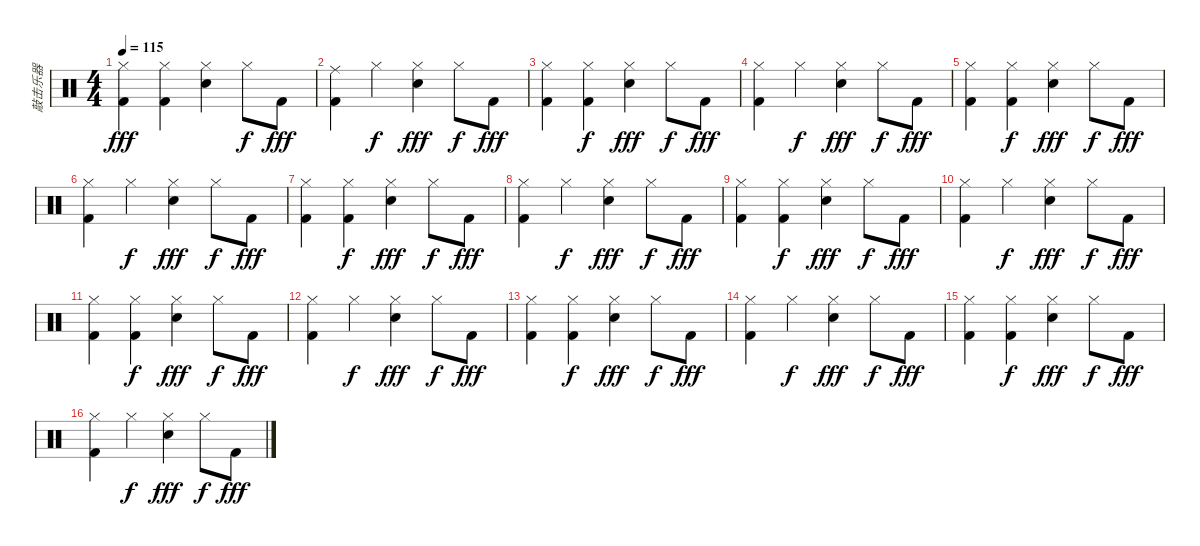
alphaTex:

\track ("敲击乐器" "敲击乐器") {instrument percussion}
\staff {score}
\articulation defaults
\ts (4 4)
\tempo 115
\clef neutral
\ks c
("Hi-Hat (closed)" "Kick (hit) 2").4{dy fff} ("Hi-Hat (closed)" "Kick (hit) 2").4 ("Hi-Hat (closed)" "Snare (hit) 2").4 "Hi-Hat (closed)".8{dy f} "Kick (hit) 2".8{dy fff} |
("Ride (middle)" "Kick (hit) 2").4 "Hi-Hat (closed)".4{dy f} ("Hi-Hat (closed)" "Snare (hit) 2").4{dy fff} "Hi-Hat (closed)".8{dy f} "Kick (hit) 2".8{dy fff} |
("Hi-Hat (closed)" "Kick (hit) 2").4 ("Hi-Hat (closed)" "Kick (hit) 2").4{dy f} ("Hi-Hat (closed)" "Snare (hit) 2").4{dy fff} "Hi-Hat (closed)".8{dy f} "Kick (hit) 2".8{dy fff} |
("Hi-Hat (closed)" "Kick (hit) 2").4 "Hi-Hat (closed)".4{dy f} ("Hi-Hat (closed)" "Snare (hit) 2").4{dy fff} "Hi-Hat (closed)".8{dy f} "Kick (hit) 2".8{dy fff} |
("Hi-Hat (closed)" "Kick (hit) 2").4 ("Hi-Hat (closed)" "Kick (hit) 2").4{dy f} ("Hi-Hat (closed)" "Snare (hit) 2").4{dy fff} "Hi-Hat (closed)".8{dy f} "Kick (hit) 2".8{dy fff} |
("Hi-Hat (closed)" "Kick (hit) 2").4 "Hi-Hat (closed)".4{dy f} ("Hi-Hat (closed)" "Snare (hit) 2").4{dy fff} "Hi-Hat (closed)".8{dy f} "Kick (hit) 2".8{dy fff} |
("Hi-Hat (closed)" "Kick (hit) 2").4 ("Hi-Hat (closed)" "Kick (hit) 2").4{dy f} ("Hi-Hat (closed)" "Snare (hit) 2").4{dy fff} "Hi-Hat (closed)".8{dy f} "Kick (hit) 2".8{dy fff} |
("Hi-Hat (closed)" "Kick (hit) 2").4 "Hi-Hat (closed)".4{dy f} ("Hi-Hat (closed)" "Snare (hit) 2").4{dy fff} "Hi-Hat (closed)".8{dy f} "Kick (hit) 2".8{dy fff} |
("Hi-Hat (closed)" "Kick (hit) 2").4 ("Hi-Hat (closed)" "Kick (hit) 2").4{dy f} ("Hi-Hat (closed)" "Snare (hit) 2").4{dy fff} "Hi-Hat (closed)".8{dy f} "Kick (hit) 2".8{dy fff} |
("Hi-Hat (closed)" "Kick (hit) 2").4 "Hi-Hat (closed)".4{dy f} ("Hi-Hat (closed)" "Snare (hit) 2").4{dy fff} "Hi-Hat (closed)".8{dy f} "Kick (hit) 2".8{dy fff} |
("Hi-Hat (closed)" "Kick (hit) 2").4 ("Hi-Hat (closed)" "Kick (hit) 2").4{dy f} ("Hi-Hat (closed)" "Snare (hit) 2").4{dy fff} "Hi-Hat (closed)".8{dy f} "Kick (hit) 2".8{dy fff} |
("Hi-Hat (closed)" "Kick (hit) 2").4 "Hi-Hat (closed)".4{dy f} ("Hi-Hat (closed)" "Snare (hit) 2").4{dy fff} "Hi-Hat (closed)".8{dy f} "Kick (hit) 2".8{dy fff} |
("Hi-Hat (closed)" "Kick (hit) 2").4 ("Hi-Hat (closed)" "Kick (hit) 2").4{dy f} ("Hi-Hat (closed)" "Snare (hit) 2").4{dy fff} "Hi-Hat (closed)".8{dy f} "Kick (hit) 2".8{dy fff} |
("Hi-Hat (closed)" "Kick (hit) 2").4 "Hi-Hat (closed)".4{dy f} ("Hi-Hat (closed)" "Snare (hit) 2").4{dy fff} "Hi-Hat (closed)".8{dy f} "Kick (hit) 2".8{dy fff} |
("Hi-Hat (closed)" "Kick (hit) 2").4 ("Hi-Hat (closed)" "Kick (hit) 2").4{dy f} ("Hi-Hat (closed)" "Snare (hit) 2").4{dy fff} "Hi-Hat (closed)".8{dy f} "Kick (hit) 2".8{dy fff} |
("Hi-Hat (closed)" "Kick (hit) 2").4 "Hi-Hat (closed)".4{dy f} ("Hi-Hat (closed)" "Snare (hit) 2").4{dy fff} "Hi-Hat (closed)".8{dy f} "Kick (hit) 2".8{dy fff}
